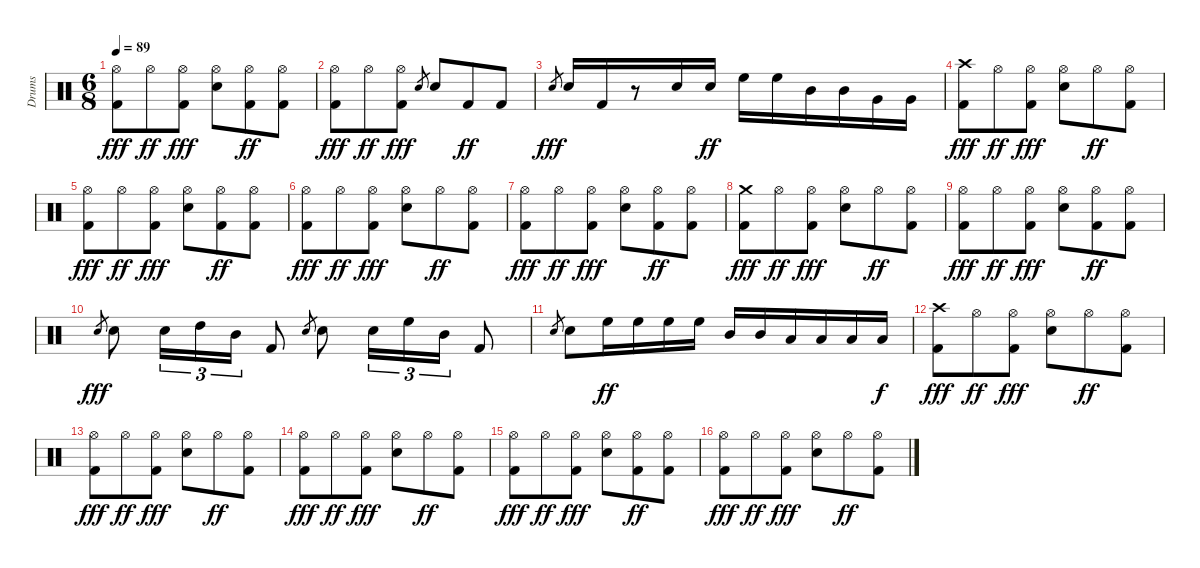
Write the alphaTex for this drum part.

\track ("Drums" "Drums") {instrument percussion}
\staff {score}
\articulation defaults
\ts (6 8)
\tempo 89
\clef neutral
\ks c
("Hi-Hat (open)" "Kick (hit) 2").8{dy fff} "Hi-Hat (open)".8{dy ff} ("Hi-Hat (open)" "Kick (hit) 2").8{dy fff} ("Hi-Hat (open)" "Snare (hit) 2").8 ("Hi-Hat (open)" "Kick (hit) 2").8{dy ff} ("Hi-Hat (open)" "Kick (hit) 2").8 |
("Hi-Hat (open)" "Kick (hit) 2").8{dy fff} "Hi-Hat (open)".8{dy ff} ("Hi-Hat (open)" "Kick (hit) 2").8{dy fff} "Snare (hit) 2".8{gr} "Snare (hit) 2".8 "Kick (hit) 2".8{dy ff} "Kick (hit) 2".8 |
"Snare (hit) 2".8{gr dy fff} "Snare (hit) 2".16 "Kick (hit) 2".16 r.8 "Snare (hit) 2".16 "Snare (hit) 2".16{dy ff} "High Floor Tom (hit)".16 "High Floor Tom (hit)".16 "Mid Tom (hit)".16 "Mid Tom (hit)".16 "Very Low Tom (hit)".16 "Very Low Tom (hit)".16 |
("Kick (hit) 2" "Crash high (hit)").8{dy fff} "Hi-Hat (open)".8{dy ff} ("Hi-Hat (open)" "Kick (hit) 2").8{dy fff} ("Hi-Hat (open)" "Snare (hit) 2").8 "Hi-Hat (open)".8{dy ff} ("Hi-Hat (open)" "Kick (hit) 2").8 |
("Hi-Hat (open)" "Kick (hit) 2").8{dy fff} "Hi-Hat (open)".8{dy ff} ("Hi-Hat (open)" "Kick (hit) 2").8{dy fff} ("Hi-Hat (open)" "Snare (hit) 2").8 ("Hi-Hat (open)" "Kick (hit) 2").8{dy ff} ("Hi-Hat (open)" "Kick (hit) 2").8 |
("Hi-Hat (open)" "Kick (hit) 2").8{dy fff} "Hi-Hat (open)".8{dy ff} ("Hi-Hat (open)" "Kick (hit) 2").8{dy fff} ("Hi-Hat (open)" "Snare (hit) 2").8 "Hi-Hat (open)".8{dy ff} ("Hi-Hat (open)" "Kick (hit) 2").8 |
("Hi-Hat (open)" "Kick (hit) 2").8{dy fff} "Hi-Hat (open)".8{dy ff} ("Hi-Hat (open)" "Kick (hit) 2").8{dy fff} ("Hi-Hat (open)" "Snare (hit) 2").8 ("Hi-Hat (open)" "Kick (hit) 2").8{dy ff} ("Hi-Hat (open)" "Kick (hit) 2").8 |
("Kick (hit) 2" "Crash medium (hit)").8{dy fff} "Hi-Hat (open)".8{dy ff} ("Hi-Hat (open)" "Kick (hit) 2").8{dy fff} ("Hi-Hat (open)" "Snare (hit) 2").8 "Hi-Hat (open)".8{dy ff} ("Hi-Hat (open)" "Kick (hit) 2").8 |
("Hi-Hat (open)" "Kick (hit) 2").8{dy fff} "Hi-Hat (open)".8{dy ff} ("Hi-Hat (open)" "Kick (hit) 2").8{dy fff} ("Hi-Hat (open)" "Snare (hit) 2").8 ("Hi-Hat (open)" "Kick (hit) 2").8{dy ff} ("Hi-Hat (open)" "Kick (hit) 2").8 |
"Snare (hit) 2".8{gr dy fff} "Snare (hit) 2".8 "Snare (hit) 2".16{tu (3 2)} "High Tom (hit)".16{tu (3 2)} "Mid Tom (hit)".16{tu (3 2)} "Kick (hit) 2".8 "Snare (hit) 2".8{gr} "Snare (hit) 2".8 "Snare (hit) 2".16{tu (3 2)} "High Floor Tom (hit)".16{tu (3 2)} "Mid Tom (hit)".16{tu (3 2)} "Kick (hit) 2".8 |
"Electric Snare (hit)".8{gr} "Electric Snare (hit)".8 "High Floor Tom (hit)".16{dy ff} "High Floor Tom (hit)".16 "High Floor Tom (hit)".16 "High Floor Tom (hit)".16 "Mid Tom (hit)".16 "Mid Tom (hit)".16 "Low Tom (hit)".16 "Low Tom (hit)".16 "Low Tom (hit)".16 "Low Tom (hit)".16{dy f} |
("Kick (hit) 2" "Crash high (hit)").8{dy fff} "Hi-Hat (open)".8{dy ff} ("Hi-Hat (open)" "Kick (hit) 2").8{dy fff} ("Hi-Hat (open)" "Snare (hit) 2").8 "Hi-Hat (open)".8{dy ff} ("Hi-Hat (open)" "Kick (hit) 2").8 |
("Hi-Hat (open)" "Kick (hit) 2").8{dy fff} "Hi-Hat (open)".8{dy ff} ("Hi-Hat (open)" "Kick (hit) 2").8{dy fff} ("Hi-Hat (open)" "Snare (hit) 2").8 "Hi-Hat (open)".8{dy ff} ("Hi-Hat (open)" "Kick (hit) 2").8 |
("Hi-Hat (open)" "Kick (hit) 2").8{dy fff} "Hi-Hat (open)".8{dy ff} ("Hi-Hat (open)" "Kick (hit) 2").8{dy fff} ("Hi-Hat (open)" "Snare (hit) 2").8 "Hi-Hat (open)".8{dy ff} ("Hi-Hat (open)" "Kick (hit) 2").8 |
("Hi-Hat (open)" "Kick (hit) 2").8{dy fff} "Hi-Hat (open)".8{dy ff} ("Hi-Hat (open)" "Kick (hit) 2").8{dy fff} ("Hi-Hat (open)" "Snare (hit) 2").8 ("Hi-Hat (open)" "Kick (hit) 2").8{dy ff} ("Hi-Hat (open)" "Kick (hit) 2").8 |
("Hi-Hat (open)" "Kick (hit) 2").8{dy fff} "Hi-Hat (open)".8{dy ff} ("Hi-Hat (open)" "Kick (hit) 2").8{dy fff} ("Hi-Hat (open)" "Snare (hit) 2").8 "Hi-Hat (open)".8{dy ff} ("Hi-Hat (open)" "Kick (hit) 2").8
